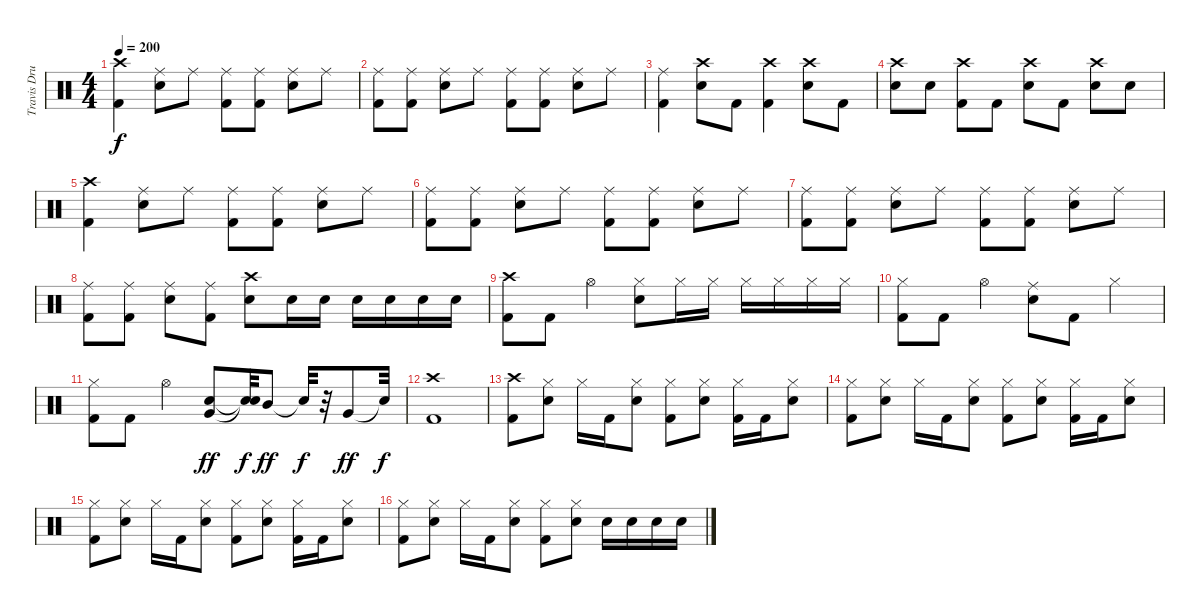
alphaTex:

\track ("Travis Drums" "Travis Dru") {instrument percussion}
\staff {score}
\articulation defaults
\ts (4 4)
\tempo 200
\clef neutral
\ks c
("Crash high (hit)" "Kick (hit) 2").4{dy f} ("Ride (middle)" "Electric Snare (hit)").8 "Ride (middle)".8 ("Ride (middle)" "Kick (hit) 2").8 ("Ride (middle)" "Kick (hit) 2").8 ("Ride (middle)" "Electric Snare (hit)").8 "Ride (middle)".8 |
("Ride (middle)" "Kick (hit) 2").8 ("Ride (middle)" "Kick (hit) 2").8 ("Ride (middle)" "Electric Snare (hit)").8 "Ride (middle)".8 ("Ride (middle)" "Kick (hit) 2").8 ("Ride (middle)" "Kick (hit) 2").8 ("Ride (middle)" "Electric Snare (hit)").8 "Ride (middle)".8 |
("Ride (middle)" "Kick (hit) 2").4 ("Crash high (hit)" "Electric Snare (hit)").8 "Kick (hit) 2".8 ("Crash high (hit)" "Kick (hit) 2").4 ("Crash high (hit)" "Electric Snare (hit)").8 "Kick (hit) 2".8 |
("Crash high (hit)" "Electric Snare (hit)").8 "Electric Snare (hit)".8 ("Crash high (hit)" "Kick (hit) 2").8 "Kick (hit) 2".8 ("Crash high (hit)" "Electric Snare (hit)").8 "Kick (hit) 2".8 ("Crash high (hit)" "Electric Snare (hit)").8 "Electric Snare (hit)".8 |
("Crash high (hit)" "Kick (hit) 2").4 ("Ride (middle)" "Electric Snare (hit)").8 "Ride (middle)".8 ("Ride (middle)" "Kick (hit) 2").8 ("Ride (middle)" "Kick (hit) 2").8 ("Ride (middle)" "Electric Snare (hit)").8 "Ride (middle)".8 |
("Ride (middle)" "Kick (hit) 2").8 ("Ride (middle)" "Kick (hit) 2").8 ("Ride (middle)" "Electric Snare (hit)").8 "Ride (middle)".8 ("Ride (middle)" "Kick (hit) 2").8 ("Ride (middle)" "Kick (hit) 2").8 ("Ride (middle)" "Electric Snare (hit)").8 "Ride (middle)".8 |
("Ride (middle)" "Kick (hit) 2").8 ("Ride (middle)" "Kick (hit) 2").8 ("Ride (middle)" "Electric Snare (hit)").8 "Ride (middle)".8 ("Ride (middle)" "Kick (hit) 2").8 ("Ride (middle)" "Kick (hit) 2").8 ("Ride (middle)" "Electric Snare (hit)").8 "Ride (middle)".8 |
("Ride (middle)" "Kick (hit) 2").8 ("Ride (middle)" "Kick (hit) 2").8 ("Ride (middle)" "Electric Snare (hit)").8 ("Ride (middle)" "Kick (hit) 2").8 ("Crash high (hit)" "Electric Snare (hit)").8 "Electric Snare (hit)".16 "Electric Snare (hit)".16 "Electric Snare (hit)".16 "Electric Snare (hit)".16 "Electric Snare (hit)".16 "Electric Snare (hit)".16 |
("Crash high (hit)" "Kick (hit) 2").8 "Kick (hit) 2".8 "Hi-Hat (open)".4 ("Hi-Hat (closed)" "Electric Snare (hit)").8 "Hi-Hat (closed)".16 "Hi-Hat (closed)".16 "Hi-Hat (closed)".16 "Hi-Hat (closed)".16 "Hi-Hat (closed)".16 "Hi-Hat (closed)".16 |
("Hi-Hat (closed)" "Kick (hit) 2").8 "Kick (hit) 2".8 "Hi-Hat (open)".4 ("Ride (middle)" "Electric Snare (hit)").8 "Kick (hit) 2".8 "Hi-Hat (closed)".4 |
("Hi-Hat (closed)" "Kick (hit) 2").8 "Kick (hit) 2".8 "Hi-Hat (open)".4 ("Very Low Tom (hit)" "Electric Snare (hit)").8{dy ff} ("Snare (hit)"{t} "Snare (hit)"{t}).32{dy f} "Mid Tom (hit)".8{dy ff} "Snare (hit)"{t}.32{dy f} r.32 "Very Low Tom (hit)".8{dy ff} "Snare (hit)"{t}.32{dy f} |
("Crash high (hit)" "Kick (hit) 2").1 |
("Crash high (hit)" "Kick (hit) 2").8 ("Hi-Hat (closed)" "Electric Snare (hit)").8 "Hi-Hat (closed)".16 "Kick (hit) 2".16 ("Hi-Hat (closed)" "Electric Snare (hit)").8 ("Hi-Hat (closed)" "Kick (hit) 2").8 ("Hi-Hat (closed)" "Electric Snare (hit)").8 ("Hi-Hat (closed)" "Kick (hit) 2").16 "Kick (hit) 2".16 ("Hi-Hat (closed)" "Electric Snare (hit)").8 |
("Hi-Hat (closed)" "Kick (hit) 2").8 ("Hi-Hat (closed)" "Electric Snare (hit)").8 "Hi-Hat (closed)".16 "Kick (hit) 2".16 ("Hi-Hat (closed)" "Electric Snare (hit)").8 ("Hi-Hat (closed)" "Kick (hit) 2").8 ("Hi-Hat (closed)" "Electric Snare (hit)").8 ("Hi-Hat (closed)" "Kick (hit) 2").16 "Kick (hit) 2".16 ("Hi-Hat (closed)" "Electric Snare (hit)").8 |
("Hi-Hat (closed)" "Kick (hit) 2").8 ("Hi-Hat (closed)" "Electric Snare (hit)").8 "Hi-Hat (closed)".16 "Kick (hit) 2".16 ("Hi-Hat (closed)" "Electric Snare (hit)").8 ("Hi-Hat (closed)" "Kick (hit) 2").8 ("Hi-Hat (closed)" "Electric Snare (hit)").8 ("Hi-Hat (closed)" "Kick (hit) 2").16 "Kick (hit) 2".16 ("Hi-Hat (closed)" "Electric Snare (hit)").8 |
("Hi-Hat (closed)" "Kick (hit) 2").8 ("Hi-Hat (closed)" "Electric Snare (hit)").8 "Hi-Hat (closed)".16 "Kick (hit) 2".16 ("Hi-Hat (closed)" "Electric Snare (hit)").8 ("Hi-Hat (closed)" "Kick (hit) 2").8 ("Hi-Hat (closed)" "Electric Snare (hit)").8 "Electric Snare (hit)".16 "Electric Snare (hit)".16 "Electric Snare (hit)".16 "Electric Snare (hit)".16
